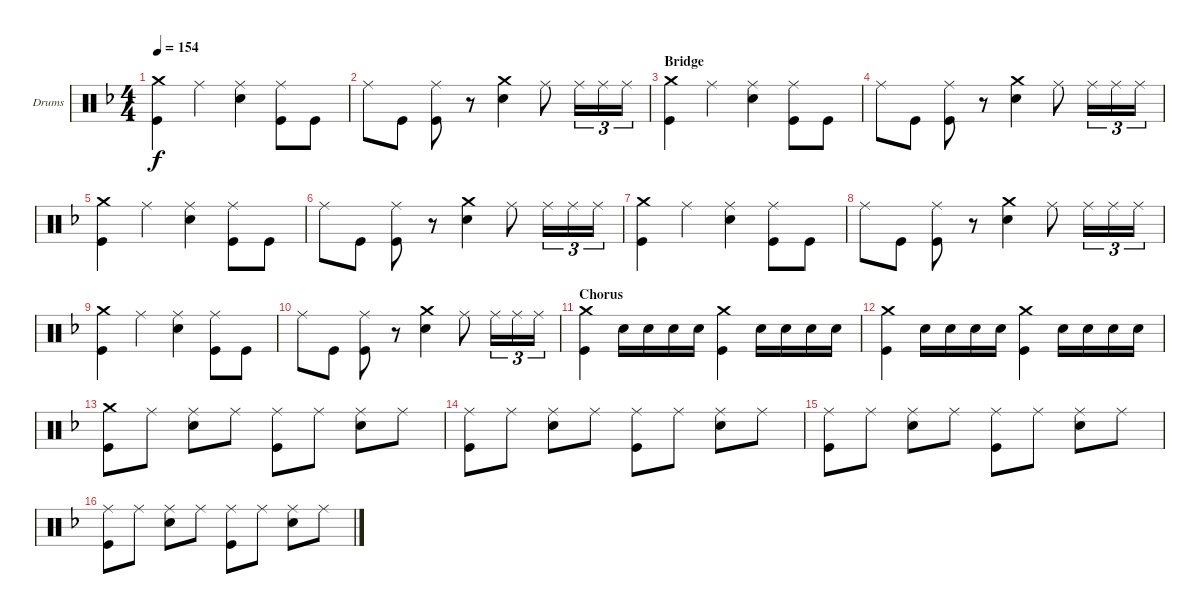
\defaultSystemsLayout 4
\bracketExtendMode groupsimilarinstruments
\firstSystemTrackNameOrientation horizontal
\otherSystemsTrackNameOrientation horizontal
\track ("Drumkit" "Drums") {instrument percussion}
\staff {score}
\articulation defaults
\ts (4 4)
\tempo 154
\clef neutral
\ks f
("Crash medium (hit)" "Kick (hit)").4{dy f} "Ride (middle)".4 ("Ride (middle)" "Snare (hit) 2").4 ("Ride (middle)" "Kick (hit)").8 "Kick (hit)".8 |
"Ride (middle)".8 "Kick (hit)".8 ("Kick (hit)" "Ride (middle)").8 r.8 ("Crash medium (hit)" "Snare (hit) 2").4 "Ride (middle)".8 "Ride (middle)".16{tu (3 2)} "Ride (middle)".16{tu (3 2)} "Ride (middle)".16{tu (3 2)} |
\section ("" "Bridge")
("Crash medium (hit)" "Kick (hit)").4 "Ride (middle)".4 ("Ride (middle)" "Snare (hit) 2").4 ("Ride (middle)" "Kick (hit)").8 "Kick (hit)".8 |
"Ride (middle)".8 "Kick (hit)".8 ("Kick (hit)" "Ride (middle)").8 r.8 ("Crash medium (hit)" "Snare (hit) 2").4 "Ride (middle)".8 "Ride (middle)".16{tu (3 2)} "Ride (middle)".16{tu (3 2)} "Ride (middle)".16{tu (3 2)} |
("Crash medium (hit)" "Kick (hit)").4 "Ride (middle)".4 ("Ride (middle)" "Snare (hit) 2").4 ("Ride (middle)" "Kick (hit)").8 "Kick (hit)".8 |
"Ride (middle)".8 "Kick (hit)".8 ("Kick (hit)" "Ride (middle)").8 r.8 ("Crash medium (hit)" "Snare (hit) 2").4 "Ride (middle)".8 "Ride (middle)".16{tu (3 2)} "Ride (middle)".16{tu (3 2)} "Ride (middle)".16{tu (3 2)} |
("Crash medium (hit)" "Kick (hit)").4 "Ride (middle)".4 ("Ride (middle)" "Snare (hit) 2").4 ("Ride (middle)" "Kick (hit)").8 "Kick (hit)".8 |
"Ride (middle)".8 "Kick (hit)".8 ("Kick (hit)" "Ride (middle)").8 r.8 ("Crash medium (hit)" "Snare (hit) 2").4 "Ride (middle)".8 "Ride (middle)".16{tu (3 2)} "Ride (middle)".16{tu (3 2)} "Ride (middle)".16{tu (3 2)} |
("Crash medium (hit)" "Kick (hit)").4 "Ride (middle)".4 ("Ride (middle)" "Snare (hit) 2").4 ("Ride (middle)" "Kick (hit)").8 "Kick (hit)".8 |
"Ride (middle)".8 "Kick (hit)".8 ("Kick (hit)" "Ride (middle)").8 r.8 ("Crash medium (hit)" "Snare (hit) 2").4 "Ride (middle)".8 "Ride (middle)".16{tu (3 2)} "Ride (middle)".16{tu (3 2)} "Ride (middle)".16{tu (3 2)} |
\section ("" "Chorus")
("Crash medium (hit)" "Kick (hit)").4 "Snare (hit) 2".16 "Snare (hit) 2".16 "Snare (hit) 2".16 "Snare (hit) 2".16 ("Crash medium (hit)" "Kick (hit)").4 "Snare (hit) 2".16 "Snare (hit) 2".16 "Snare (hit) 2".16 "Snare (hit) 2".16 |
("Crash medium (hit)" "Kick (hit)").4 "Snare (hit) 2".16 "Snare (hit) 2".16 "Snare (hit) 2".16 "Snare (hit) 2".16 ("Crash medium (hit)" "Kick (hit)").4 "Snare (hit) 2".16 "Snare (hit) 2".16 "Snare (hit) 2".16 "Snare (hit) 2".16 |
("Crash medium (hit)" "Kick (hit)").8 "Ride (middle)".8 ("Ride (middle)" "Snare (hit) 2").8 "Ride (middle)".8 ("Ride (middle)" "Kick (hit)").8 "Ride (middle)".8 ("Ride (middle)" "Snare (hit) 2").8 "Ride (middle)".8 |
("Kick (hit)" "Ride (middle)").8 "Ride (middle)".8 ("Ride (middle)" "Snare (hit) 2").8 "Ride (middle)".8 ("Ride (middle)" "Kick (hit)").8 "Ride (middle)".8 ("Ride (middle)" "Snare (hit) 2").8 "Ride (middle)".8 |
("Kick (hit)" "Ride (middle)").8 "Ride (middle)".8 ("Ride (middle)" "Snare (hit) 2").8 "Ride (middle)".8 ("Ride (middle)" "Kick (hit)").8 "Ride (middle)".8 ("Ride (middle)" "Snare (hit) 2").8 "Ride (middle)".8 |
("Kick (hit)" "Ride (middle)").8 "Ride (middle)".8 ("Ride (middle)" "Snare (hit) 2").8 "Ride (middle)".8 ("Ride (middle)" "Kick (hit)").8 "Ride (middle)".8 ("Ride (middle)" "Snare (hit) 2").8 "Ride (middle)".8
